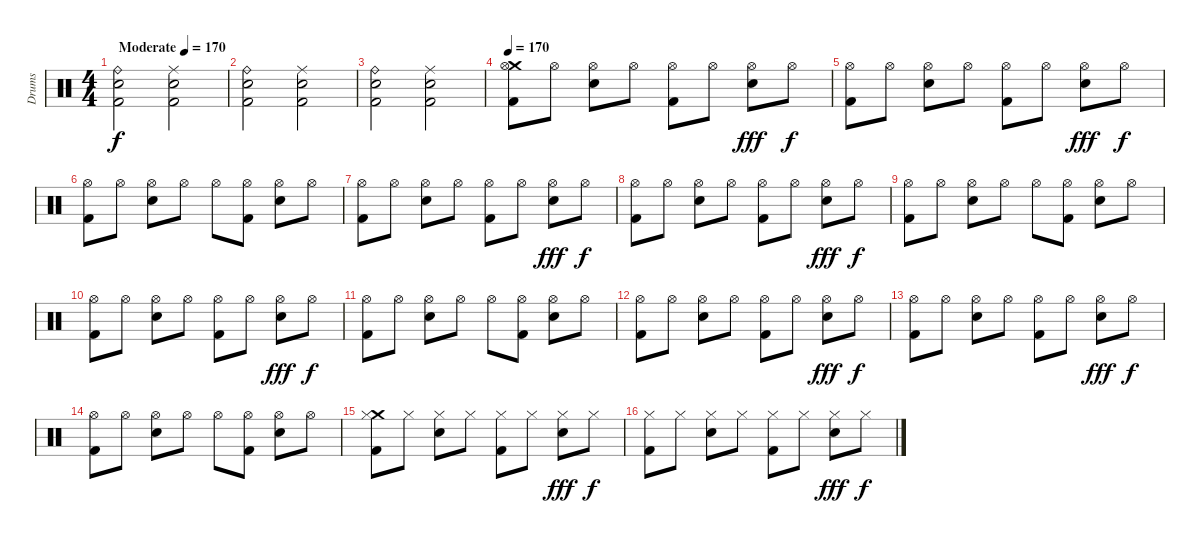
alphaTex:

\track ("Drums" "Drums") {instrument percussion}
\staff {score}
\articulation defaults
\ts (4 4)
\tempo (170 "Moderate")
\tempo 140
\tempo (170 "Moderate")
\clef neutral
\ks c
("Ride (bell)" "Electric Snare (hit)" "Kick (hit) 2").2{dy f} ("Ride (middle)" "Electric Snare (hit)" "Kick (hit) 2").2 |
("Ride (bell)" "Electric Snare (hit)" "Kick (hit) 2").2 ("Ride (middle)" "Electric Snare (hit)" "Kick (hit) 2").2 |
("Ride (bell)" "Electric Snare (hit)" "Kick (hit) 2").2 ("Ride (middle)" "Electric Snare (hit)" "Kick (hit) 2").2 |
\tempo 170
("Crash medium (hit)" "Hi-Hat (open)" "Kick (hit) 2").8 "Hi-Hat (open)".8 ("Hi-Hat (open)" "Electric Snare (hit)").8 "Hi-Hat (open)".8 ("Hi-Hat (open)" "Kick (hit) 2").8 "Hi-Hat (open)".8 ("Hi-Hat (open)" "Electric Snare (hit)").8{dy fff} "Hi-Hat (open)".8{dy f} |
("Hi-Hat (open)" "Kick (hit) 2").8 "Hi-Hat (open)".8 ("Hi-Hat (open)" "Electric Snare (hit)").8 "Hi-Hat (open)".8 ("Hi-Hat (open)" "Kick (hit) 2").8 "Hi-Hat (open)".8 ("Hi-Hat (open)" "Electric Snare (hit)").8{dy fff} "Hi-Hat (open)".8{dy f} |
("Hi-Hat (open)" "Kick (hit) 2").8 "Hi-Hat (open)".8 ("Hi-Hat (open)" "Electric Snare (hit)").8 "Hi-Hat (open)".8 "Hi-Hat (open)".8 ("Hi-Hat (open)" "Kick (hit) 2").8 ("Hi-Hat (open)" "Electric Snare (hit)").8 "Hi-Hat (open)".8 |
("Hi-Hat (open)" "Kick (hit) 2").8 "Hi-Hat (open)".8 ("Hi-Hat (open)" "Electric Snare (hit)").8 "Hi-Hat (open)".8 ("Hi-Hat (open)" "Kick (hit) 2").8 "Hi-Hat (open)".8 ("Hi-Hat (open)" "Electric Snare (hit)").8{dy fff} "Hi-Hat (open)".8{dy f} |
("Hi-Hat (open)" "Kick (hit) 2").8 "Hi-Hat (open)".8 ("Hi-Hat (open)" "Electric Snare (hit)").8 "Hi-Hat (open)".8 ("Hi-Hat (open)" "Kick (hit) 2").8 "Hi-Hat (open)".8 ("Hi-Hat (open)" "Electric Snare (hit)").8{dy fff} "Hi-Hat (open)".8{dy f} |
("Hi-Hat (open)" "Kick (hit) 2").8 "Hi-Hat (open)".8 ("Hi-Hat (open)" "Electric Snare (hit)").8 "Hi-Hat (open)".8 "Hi-Hat (open)".8 ("Hi-Hat (open)" "Kick (hit) 2").8 ("Hi-Hat (open)" "Electric Snare (hit)").8 "Hi-Hat (open)".8 |
("Hi-Hat (open)" "Kick (hit) 2").8 "Hi-Hat (open)".8 ("Hi-Hat (open)" "Electric Snare (hit)").8 "Hi-Hat (open)".8 ("Hi-Hat (open)" "Kick (hit) 2").8 "Hi-Hat (open)".8 ("Hi-Hat (open)" "Electric Snare (hit)").8{dy fff} "Hi-Hat (open)".8{dy f} |
("Hi-Hat (open)" "Kick (hit) 2").8 "Hi-Hat (open)".8 ("Hi-Hat (open)" "Electric Snare (hit)").8 "Hi-Hat (open)".8 "Hi-Hat (open)".8 ("Hi-Hat (open)" "Kick (hit) 2").8 ("Hi-Hat (open)" "Electric Snare (hit)").8 "Hi-Hat (open)".8 |
("Hi-Hat (open)" "Kick (hit) 2").8 "Hi-Hat (open)".8 ("Hi-Hat (open)" "Electric Snare (hit)").8 "Hi-Hat (open)".8 ("Hi-Hat (open)" "Kick (hit) 2").8 "Hi-Hat (open)".8 ("Hi-Hat (open)" "Electric Snare (hit)").8{dy fff} "Hi-Hat (open)".8{dy f} |
("Hi-Hat (open)" "Kick (hit) 2").8 "Hi-Hat (open)".8 ("Hi-Hat (open)" "Electric Snare (hit)").8 "Hi-Hat (open)".8 ("Hi-Hat (open)" "Kick (hit) 2").8 "Hi-Hat (open)".8 ("Hi-Hat (open)" "Electric Snare (hit)").8{dy fff} "Hi-Hat (open)".8{dy f} |
("Hi-Hat (open)" "Kick (hit) 2").8 "Hi-Hat (open)".8 ("Hi-Hat (open)" "Electric Snare (hit)").8 "Hi-Hat (open)".8 "Hi-Hat (open)".8 ("Hi-Hat (open)" "Kick (hit) 2").8 ("Hi-Hat (open)" "Electric Snare (hit)").8 "Hi-Hat (open)".8 |
("Crash medium (hit)" "Hi-Hat (closed)" "Kick (hit) 2").8 "Hi-Hat (closed)".8 ("Hi-Hat (closed)" "Electric Snare (hit)").8 "Hi-Hat (closed)".8 ("Hi-Hat (closed)" "Kick (hit) 2").8 "Hi-Hat (closed)".8 ("Hi-Hat (closed)" "Electric Snare (hit)").8{dy fff} "Hi-Hat (closed)".8{dy f} |
("Hi-Hat (closed)" "Kick (hit) 2").8 "Hi-Hat (closed)".8 ("Hi-Hat (closed)" "Electric Snare (hit)").8 "Hi-Hat (closed)".8 ("Hi-Hat (closed)" "Kick (hit) 2").8 "Hi-Hat (closed)".8 ("Hi-Hat (closed)" "Electric Snare (hit)").8{dy fff} "Hi-Hat (closed)".8{dy f}
